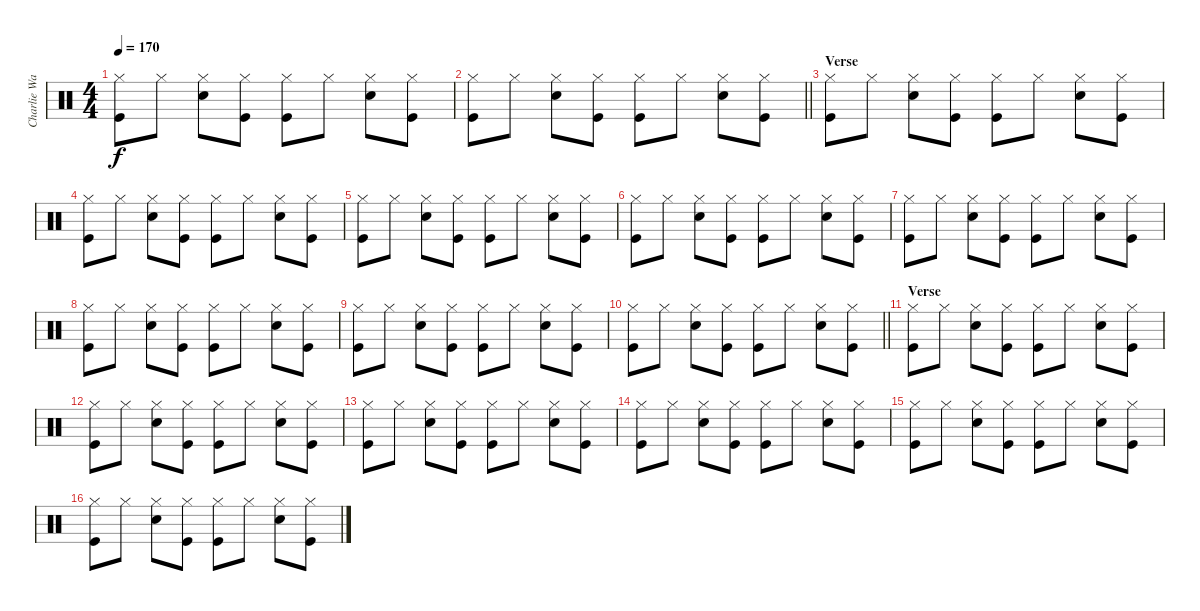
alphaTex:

\track ("Charlie Watts" "Charlie Wa") {instrument percussion}
\staff {score}
\articulation defaults
\ts (4 4)
\tempo 170
\clef neutral
\ks c
("Hi-Hat (closed)" "Kick (hit)").8{dy f} "Hi-Hat (closed)".8 ("Hi-Hat (closed)" "Snare (hit) 2").8 ("Hi-Hat (closed)" "Kick (hit)").8 ("Hi-Hat (closed)" "Kick (hit)").8 "Hi-Hat (closed)".8 ("Hi-Hat (closed)" "Snare (hit) 2").8 ("Hi-Hat (closed)" "Kick (hit)").8 |
\barLineRight lightlight
("Hi-Hat (closed)" "Kick (hit)").8 "Hi-Hat (closed)".8 ("Hi-Hat (closed)" "Snare (hit) 2").8 ("Hi-Hat (closed)" "Kick (hit)").8 ("Hi-Hat (closed)" "Kick (hit)").8 "Hi-Hat (closed)".8 ("Hi-Hat (closed)" "Snare (hit) 2").8 ("Hi-Hat (closed)" "Kick (hit)").8 |
\section ("" "Verse")
("Hi-Hat (closed)" "Kick (hit)").8 "Hi-Hat (closed)".8 ("Hi-Hat (closed)" "Snare (hit) 2").8 ("Hi-Hat (closed)" "Kick (hit)").8 ("Hi-Hat (closed)" "Kick (hit)").8 "Hi-Hat (closed)".8 ("Hi-Hat (closed)" "Snare (hit) 2").8 ("Hi-Hat (closed)" "Kick (hit)").8 |
("Hi-Hat (closed)" "Kick (hit)").8 "Hi-Hat (closed)".8 ("Hi-Hat (closed)" "Snare (hit) 2").8 ("Hi-Hat (closed)" "Kick (hit)").8 ("Hi-Hat (closed)" "Kick (hit)").8 "Hi-Hat (closed)".8 ("Hi-Hat (closed)" "Snare (hit) 2").8 ("Hi-Hat (closed)" "Kick (hit)").8 |
("Hi-Hat (closed)" "Kick (hit)").8 "Hi-Hat (closed)".8 ("Hi-Hat (closed)" "Snare (hit) 2").8 ("Hi-Hat (closed)" "Kick (hit)").8 ("Hi-Hat (closed)" "Kick (hit)").8 "Hi-Hat (closed)".8 ("Hi-Hat (closed)" "Snare (hit) 2").8 ("Hi-Hat (closed)" "Kick (hit)").8 |
("Hi-Hat (closed)" "Kick (hit)").8 "Hi-Hat (closed)".8 ("Hi-Hat (closed)" "Snare (hit) 2").8 ("Hi-Hat (closed)" "Kick (hit)").8 ("Hi-Hat (closed)" "Kick (hit)").8 "Hi-Hat (closed)".8 ("Hi-Hat (closed)" "Snare (hit) 2").8 ("Hi-Hat (closed)" "Kick (hit)").8 |
("Hi-Hat (closed)" "Kick (hit)").8 "Hi-Hat (closed)".8 ("Hi-Hat (closed)" "Snare (hit) 2").8 ("Hi-Hat (closed)" "Kick (hit)").8 ("Hi-Hat (closed)" "Kick (hit)").8 "Hi-Hat (closed)".8 ("Hi-Hat (closed)" "Snare (hit) 2").8 ("Hi-Hat (closed)" "Kick (hit)").8 |
("Hi-Hat (closed)" "Kick (hit)").8 "Hi-Hat (closed)".8 ("Hi-Hat (closed)" "Snare (hit) 2").8 ("Hi-Hat (closed)" "Kick (hit)").8 ("Hi-Hat (closed)" "Kick (hit)").8 "Hi-Hat (closed)".8 ("Hi-Hat (closed)" "Snare (hit) 2").8 ("Hi-Hat (closed)" "Kick (hit)").8 |
("Hi-Hat (closed)" "Kick (hit)").8 "Hi-Hat (closed)".8 ("Hi-Hat (closed)" "Snare (hit) 2").8 ("Hi-Hat (closed)" "Kick (hit)").8 ("Hi-Hat (closed)" "Kick (hit)").8 "Hi-Hat (closed)".8 ("Hi-Hat (closed)" "Snare (hit) 2").8 ("Hi-Hat (closed)" "Kick (hit)").8 |
\barLineRight lightlight
("Hi-Hat (closed)" "Kick (hit)").8 "Hi-Hat (closed)".8 ("Hi-Hat (closed)" "Snare (hit) 2").8 ("Hi-Hat (closed)" "Kick (hit)").8 ("Hi-Hat (closed)" "Kick (hit)").8 "Hi-Hat (closed)".8 ("Hi-Hat (closed)" "Snare (hit) 2").8 ("Hi-Hat (closed)" "Kick (hit)").8 |
\section ("" "Verse")
("Hi-Hat (closed)" "Kick (hit)").8 "Hi-Hat (closed)".8 ("Hi-Hat (closed)" "Snare (hit) 2").8 ("Hi-Hat (closed)" "Kick (hit)").8 ("Hi-Hat (closed)" "Kick (hit)").8 "Hi-Hat (closed)".8 ("Hi-Hat (closed)" "Snare (hit) 2").8 ("Hi-Hat (closed)" "Kick (hit)").8 |
("Hi-Hat (closed)" "Kick (hit)").8 "Hi-Hat (closed)".8 ("Hi-Hat (closed)" "Snare (hit) 2").8 ("Hi-Hat (closed)" "Kick (hit)").8 ("Hi-Hat (closed)" "Kick (hit)").8 "Hi-Hat (closed)".8 ("Hi-Hat (closed)" "Snare (hit) 2").8 ("Hi-Hat (closed)" "Kick (hit)").8 |
("Hi-Hat (closed)" "Kick (hit)").8 "Hi-Hat (closed)".8 ("Hi-Hat (closed)" "Snare (hit) 2").8 ("Hi-Hat (closed)" "Kick (hit)").8 ("Hi-Hat (closed)" "Kick (hit)").8 "Hi-Hat (closed)".8 ("Hi-Hat (closed)" "Snare (hit) 2").8 ("Hi-Hat (closed)" "Kick (hit)").8 |
("Hi-Hat (closed)" "Kick (hit)").8 "Hi-Hat (closed)".8 ("Hi-Hat (closed)" "Snare (hit) 2").8 ("Hi-Hat (closed)" "Kick (hit)").8 ("Hi-Hat (closed)" "Kick (hit)").8 "Hi-Hat (closed)".8 ("Hi-Hat (closed)" "Snare (hit) 2").8 ("Hi-Hat (closed)" "Kick (hit)").8 |
("Hi-Hat (closed)" "Kick (hit)").8 "Hi-Hat (closed)".8 ("Hi-Hat (closed)" "Snare (hit) 2").8 ("Hi-Hat (closed)" "Kick (hit)").8 ("Hi-Hat (closed)" "Kick (hit)").8 "Hi-Hat (closed)".8 ("Hi-Hat (closed)" "Snare (hit) 2").8 ("Hi-Hat (closed)" "Kick (hit)").8 |
("Hi-Hat (closed)" "Kick (hit)").8 "Hi-Hat (closed)".8 ("Hi-Hat (closed)" "Snare (hit) 2").8 ("Hi-Hat (closed)" "Kick (hit)").8 ("Hi-Hat (closed)" "Kick (hit)").8 "Hi-Hat (closed)".8 ("Hi-Hat (closed)" "Snare (hit) 2").8 ("Hi-Hat (closed)" "Kick (hit)").8
